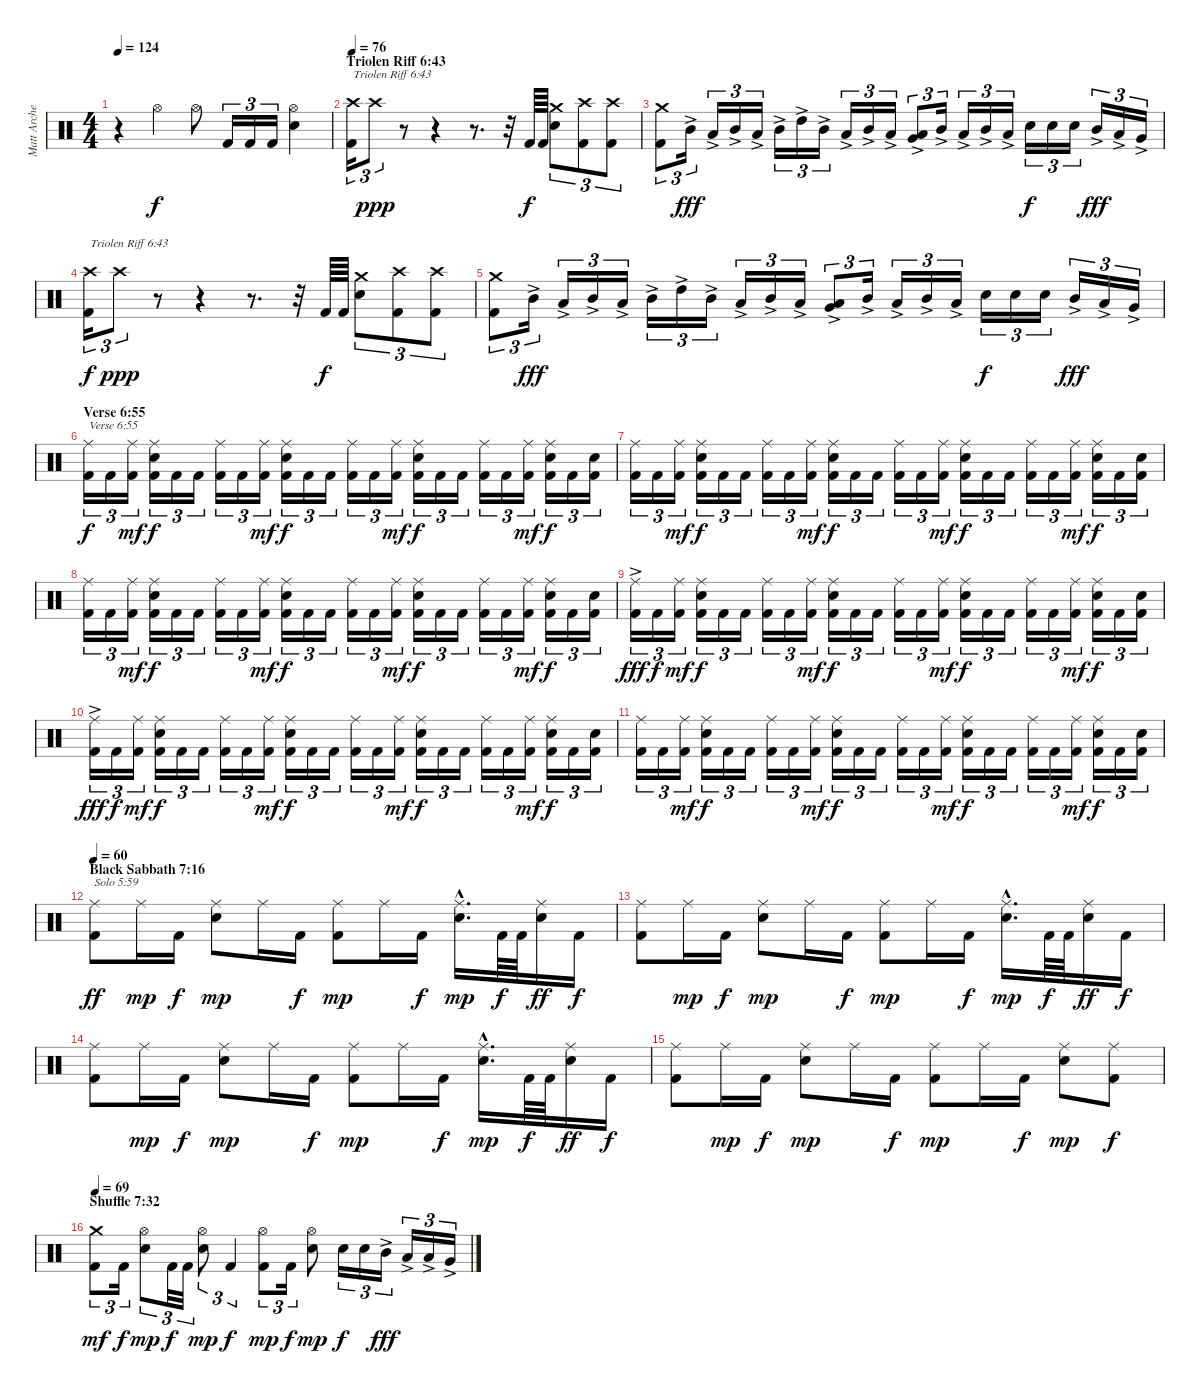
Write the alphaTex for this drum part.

\track ("Matt Archer" "Matt Arche") {instrument percussion}
\staff {score}
\articulation defaults
\ts (4 4)
\tempo 124
\clef neutral
\ks c
r.4{dy f} "Hi-Hat (open)".4 "Hi-Hat (open)".8 "Kick (hit) 2".16{tu (3 2)} "Kick (hit) 2".16{tu (3 2)} "Kick (hit) 2".16{tu (3 2)} ("Electric Snare (hit)" "Hi-Hat (open)").4 |
\section ("" "Triolen Riff 6:43")
\tempo 76
("Kick (hit) 2" "Crash high (hit)").16{tu (3 2) txt "Triolen Riff 6:43"} "Crash high (hit)".8{tu (3 2) dy ppp} r.8 r.4 r.8{d} r.32 "Kick (hit) 2".64{dy f} "Kick (hit) 2".64 ("Electric Snare (hit)" "Crash medium (hit)").8{tu (3 2)} ("Kick (hit) 2" "Crash high (hit)").8{tu (3 2)} ("Kick (hit) 2" "Crash high (hit)").8{tu (3 2)} |
("Kick (hit) 2" "Crash medium (hit)").8{tu (3 2)} "Mid Tom (hit)"{ac}.16{tu (3 2) dy fff} "Low Tom (hit)"{ac}.16{tu (3 2)} "Mid Tom (hit)"{ac}.16{tu (3 2)} "Low Tom (hit)"{ac}.16{tu (3 2)} "Mid Tom (hit)"{ac}.16{tu (3 2)} "High Tom (hit)"{ac}.16{tu (3 2)} "Mid Tom (hit)"{ac}.16{tu (3 2)} "Low Tom (hit)"{ac}.16{tu (3 2)} "Mid Tom (hit)"{ac}.16{tu (3 2)} "Low Tom (hit)"{ac}.16{tu (3 2)} ("Low Tom (hit)"{ac} "Very Low Tom (hit)"{ac}).8{tu (3 2)} "Mid Tom (hit)"{ac}.16{tu (3 2)} "Low Tom (hit)"{ac}.16{tu (3 2)} "Mid Tom (hit)"{ac}.16{tu (3 2)} "Low Tom (hit)"{ac}.16{tu (3 2)} "Electric Snare (hit)".16{tu (3 2) dy f} "Electric Snare (hit)".16{tu (3 2)} "Electric Snare (hit)".16{tu (3 2)} "Mid Tom (hit)"{ac}.16{tu (3 2) dy fff} "Low Tom (hit)"{ac}.16{tu (3 2)} "Very Low Tom (hit)"{ac}.16{tu (3 2)} |
("Kick (hit) 2" "Crash high (hit)").16{tu (3 2) txt "Triolen Riff 6:43" dy f} "Crash high (hit)".8{tu (3 2) dy ppp} r.8 r.4 r.8{d} r.32 "Kick (hit) 2".64{dy f} "Kick (hit) 2".64 ("Electric Snare (hit)" "Crash medium (hit)").8{tu (3 2)} ("Kick (hit) 2" "Crash high (hit)").8{tu (3 2)} ("Kick (hit) 2" "Crash high (hit)").8{tu (3 2)} |
("Kick (hit) 2" "Crash medium (hit)").8{tu (3 2)} "Mid Tom (hit)"{ac}.16{tu (3 2) dy fff} "Low Tom (hit)"{ac}.16{tu (3 2)} "Mid Tom (hit)"{ac}.16{tu (3 2)} "Low Tom (hit)"{ac}.16{tu (3 2)} "Mid Tom (hit)"{ac}.16{tu (3 2)} "High Tom (hit)"{ac}.16{tu (3 2)} "Mid Tom (hit)"{ac}.16{tu (3 2)} "Low Tom (hit)"{ac}.16{tu (3 2)} "Mid Tom (hit)"{ac}.16{tu (3 2)} "Low Tom (hit)"{ac}.16{tu (3 2)} ("Low Tom (hit)"{ac} "Very Low Tom (hit)"{ac}).8{tu (3 2)} "Mid Tom (hit)"{ac}.16{tu (3 2)} "Low Tom (hit)"{ac}.16{tu (3 2)} "Mid Tom (hit)"{ac}.16{tu (3 2)} "Low Tom (hit)"{ac}.16{tu (3 2)} "Electric Snare (hit)".16{tu (3 2) dy f} "Electric Snare (hit)".16{tu (3 2)} "Electric Snare (hit)".16{tu (3 2)} "Mid Tom (hit)"{ac}.16{tu (3 2) dy fff} "Low Tom (hit)"{ac}.16{tu (3 2)} "Very Low Tom (hit)"{ac}.16{tu (3 2)} |
\section ("" "Verse 6:55")
("Kick (hit) 2" "Ride (middle)").16{tu (3 2) txt "Verse 6:55" dy f} "Kick (hit) 2".16{tu (3 2)} ("Kick (hit) 2" "Ride (middle)").16{tu (3 2) dy mf} ("Kick (hit) 2" "Electric Snare (hit)" "Ride (middle)").16{tu (3 2) dy f} "Kick (hit) 2".16{tu (3 2)} "Kick (hit) 2".16{tu (3 2)} ("Kick (hit) 2" "Ride (middle)").16{tu (3 2)} "Kick (hit) 2".16{tu (3 2)} ("Kick (hit) 2" "Ride (middle)").16{tu (3 2) dy mf} ("Kick (hit) 2" "Electric Snare (hit)" "Ride (middle)").16{tu (3 2) dy f} "Kick (hit) 2".16{tu (3 2)} "Kick (hit) 2".16{tu (3 2)} ("Kick (hit) 2" "Ride (middle)").16{tu (3 2)} "Kick (hit) 2".16{tu (3 2)} ("Kick (hit) 2" "Ride (middle)").16{tu (3 2) dy mf} ("Kick (hit) 2" "Electric Snare (hit)" "Ride (middle)").16{tu (3 2) dy f} "Kick (hit) 2".16{tu (3 2)} "Kick (hit) 2".16{tu (3 2)} ("Kick (hit) 2" "Ride (middle)").16{tu (3 2)} "Kick (hit) 2".16{tu (3 2)} ("Kick (hit) 2" "Ride (middle)").16{tu (3 2) dy mf} ("Kick (hit) 2" "Electric Snare (hit)" "Ride (middle)").16{tu (3 2) dy f} "Kick (hit) 2".16{tu (3 2)} ("Kick (hit) 2" "Electric Snare (hit)").16{tu (3 2)} |
("Kick (hit) 2" "Ride (middle)").16{tu (3 2)} "Kick (hit) 2".16{tu (3 2)} ("Kick (hit) 2" "Ride (middle)").16{tu (3 2) dy mf} ("Kick (hit) 2" "Electric Snare (hit)" "Ride (middle)").16{tu (3 2) dy f} "Kick (hit) 2".16{tu (3 2)} "Kick (hit) 2".16{tu (3 2)} ("Kick (hit) 2" "Ride (middle)").16{tu (3 2)} "Kick (hit) 2".16{tu (3 2)} ("Kick (hit) 2" "Ride (middle)").16{tu (3 2) dy mf} ("Kick (hit) 2" "Electric Snare (hit)" "Ride (middle)").16{tu (3 2) dy f} "Kick (hit) 2".16{tu (3 2)} "Kick (hit) 2".16{tu (3 2)} ("Kick (hit) 2" "Ride (middle)").16{tu (3 2)} "Kick (hit) 2".16{tu (3 2)} ("Kick (hit) 2" "Ride (middle)").16{tu (3 2) dy mf} ("Kick (hit) 2" "Electric Snare (hit)" "Ride (middle)").16{tu (3 2) dy f} "Kick (hit) 2".16{tu (3 2)} "Kick (hit) 2".16{tu (3 2)} ("Kick (hit) 2" "Ride (middle)").16{tu (3 2)} "Kick (hit) 2".16{tu (3 2)} ("Kick (hit) 2" "Ride (middle)").16{tu (3 2) dy mf} ("Kick (hit) 2" "Electric Snare (hit)" "Ride (middle)").16{tu (3 2) dy f} "Kick (hit) 2".16{tu (3 2)} ("Kick (hit) 2" "Electric Snare (hit)").16{tu (3 2)} |
("Kick (hit) 2" "Ride (middle)").16{tu (3 2)} "Kick (hit) 2".16{tu (3 2)} ("Kick (hit) 2" "Ride (middle)").16{tu (3 2) dy mf} ("Kick (hit) 2" "Electric Snare (hit)" "Ride (middle)").16{tu (3 2) dy f} "Kick (hit) 2".16{tu (3 2)} "Kick (hit) 2".16{tu (3 2)} ("Kick (hit) 2" "Ride (middle)").16{tu (3 2)} "Kick (hit) 2".16{tu (3 2)} ("Kick (hit) 2" "Ride (middle)").16{tu (3 2) dy mf} ("Kick (hit) 2" "Electric Snare (hit)" "Ride (middle)").16{tu (3 2) dy f} "Kick (hit) 2".16{tu (3 2)} "Kick (hit) 2".16{tu (3 2)} ("Kick (hit) 2" "Ride (middle)").16{tu (3 2)} "Kick (hit) 2".16{tu (3 2)} ("Kick (hit) 2" "Ride (middle)").16{tu (3 2) dy mf} ("Kick (hit) 2" "Electric Snare (hit)" "Ride (middle)").16{tu (3 2) dy f} "Kick (hit) 2".16{tu (3 2)} "Kick (hit) 2".16{tu (3 2)} ("Kick (hit) 2" "Ride (middle)").16{tu (3 2)} "Kick (hit) 2".16{tu (3 2)} ("Kick (hit) 2" "Ride (middle)").16{tu (3 2) dy mf} ("Kick (hit) 2" "Electric Snare (hit)" "Ride (middle)").16{tu (3 2) dy f} "Kick (hit) 2".16{tu (3 2)} ("Kick (hit) 2" "Electric Snare (hit)").16{tu (3 2)} |
("Kick (hit) 2" "Ride (middle)"{ac}).16{tu (3 2) dy fff} "Kick (hit) 2".16{tu (3 2) dy f} ("Kick (hit) 2" "Ride (middle)").16{tu (3 2) dy mf} ("Kick (hit) 2" "Electric Snare (hit)" "Ride (middle)").16{tu (3 2) dy f} "Kick (hit) 2".16{tu (3 2)} "Kick (hit) 2".16{tu (3 2)} ("Kick (hit) 2" "Ride (middle)").16{tu (3 2)} "Kick (hit) 2".16{tu (3 2)} ("Kick (hit) 2" "Ride (middle)").16{tu (3 2) dy mf} ("Kick (hit) 2" "Electric Snare (hit)" "Ride (middle)").16{tu (3 2) dy f} "Kick (hit) 2".16{tu (3 2)} "Kick (hit) 2".16{tu (3 2)} ("Kick (hit) 2" "Ride (middle)").16{tu (3 2)} "Kick (hit) 2".16{tu (3 2)} ("Kick (hit) 2" "Ride (middle)").16{tu (3 2) dy mf} ("Kick (hit) 2" "Electric Snare (hit)" "Ride (middle)").16{tu (3 2) dy f} "Kick (hit) 2".16{tu (3 2)} "Kick (hit) 2".16{tu (3 2)} ("Kick (hit) 2" "Ride (middle)").16{tu (3 2)} "Kick (hit) 2".16{tu (3 2)} ("Kick (hit) 2" "Ride (middle)").16{tu (3 2) dy mf} ("Kick (hit) 2" "Electric Snare (hit)" "Ride (middle)").16{tu (3 2) dy f} "Kick (hit) 2".16{tu (3 2)} ("Kick (hit) 2" "Electric Snare (hit)").16{tu (3 2)} |
("Kick (hit) 2" "Ride (middle)"{ac}).16{tu (3 2) dy fff} "Kick (hit) 2".16{tu (3 2) dy f} ("Kick (hit) 2" "Ride (middle)").16{tu (3 2) dy mf} ("Kick (hit) 2" "Electric Snare (hit)" "Ride (middle)").16{tu (3 2) dy f} "Kick (hit) 2".16{tu (3 2)} "Kick (hit) 2".16{tu (3 2)} ("Kick (hit) 2" "Ride (middle)").16{tu (3 2)} "Kick (hit) 2".16{tu (3 2)} ("Kick (hit) 2" "Ride (middle)").16{tu (3 2) dy mf} ("Kick (hit) 2" "Electric Snare (hit)" "Ride (middle)").16{tu (3 2) dy f} "Kick (hit) 2".16{tu (3 2)} "Kick (hit) 2".16{tu (3 2)} ("Kick (hit) 2" "Ride (middle)").16{tu (3 2)} "Kick (hit) 2".16{tu (3 2)} ("Kick (hit) 2" "Ride (middle)").16{tu (3 2) dy mf} ("Kick (hit) 2" "Electric Snare (hit)" "Ride (middle)").16{tu (3 2) dy f} "Kick (hit) 2".16{tu (3 2)} "Kick (hit) 2".16{tu (3 2)} ("Kick (hit) 2" "Ride (middle)").16{tu (3 2)} "Kick (hit) 2".16{tu (3 2)} ("Kick (hit) 2" "Ride (middle)").16{tu (3 2) dy mf} ("Kick (hit) 2" "Electric Snare (hit)" "Ride (middle)").16{tu (3 2) dy f} "Kick (hit) 2".16{tu (3 2)} ("Kick (hit) 2" "Electric Snare (hit)").16{tu (3 2)} |
("Kick (hit) 2" "Ride (middle)").16{tu (3 2)} "Kick (hit) 2".16{tu (3 2)} ("Kick (hit) 2" "Ride (middle)").16{tu (3 2) dy mf} ("Kick (hit) 2" "Electric Snare (hit)" "Ride (middle)").16{tu (3 2) dy f} "Kick (hit) 2".16{tu (3 2)} "Kick (hit) 2".16{tu (3 2)} ("Kick (hit) 2" "Ride (middle)").16{tu (3 2)} "Kick (hit) 2".16{tu (3 2)} ("Kick (hit) 2" "Ride (middle)").16{tu (3 2) dy mf} ("Kick (hit) 2" "Electric Snare (hit)" "Ride (middle)").16{tu (3 2) dy f} "Kick (hit) 2".16{tu (3 2)} "Kick (hit) 2".16{tu (3 2)} ("Kick (hit) 2" "Ride (middle)").16{tu (3 2)} "Kick (hit) 2".16{tu (3 2)} ("Kick (hit) 2" "Ride (middle)").16{tu (3 2) dy mf} ("Kick (hit) 2" "Electric Snare (hit)" "Ride (middle)").16{tu (3 2) dy f} "Kick (hit) 2".16{tu (3 2)} "Kick (hit) 2".16{tu (3 2)} ("Kick (hit) 2" "Ride (middle)").16{tu (3 2)} "Kick (hit) 2".16{tu (3 2)} ("Kick (hit) 2" "Ride (middle)").16{tu (3 2) dy mf} ("Kick (hit) 2" "Electric Snare (hit)" "Ride (middle)").16{tu (3 2) dy f} "Kick (hit) 2".16{tu (3 2)} ("Kick (hit) 2" "Electric Snare (hit)").16{tu (3 2)} |
\section ("" "Black Sabbath 7:16")
\tempo 60
("Kick (hit) 2" "Ride (middle)").8{txt "Solo 5:59" dy ff} "Ride (middle)".16{dy mp} "Kick (hit) 2".16{dy f} ("Electric Snare (hit)" "Ride (middle)").8{dy mp} "Ride (middle)".16 "Kick (hit) 2".16{dy f} ("Kick (hit) 2" "Ride (middle)").8{dy mp} "Ride (middle)".16 "Kick (hit) 2".16{dy f} ("Electric Snare (hit)"{hac} "Ride (middle)"{hac}).16{d dy mp} "Kick (hit) 2".64{dy f} "Kick (hit) 2".64 ("Electric Snare (hit)" "Ride (middle)").16{dy ff} "Kick (hit) 2".16{dy f} |
("Kick (hit) 2" "Ride (middle)").8 "Ride (middle)".16{dy mp} "Kick (hit) 2".16{dy f} ("Electric Snare (hit)" "Ride (middle)").8{dy mp} "Ride (middle)".16 "Kick (hit) 2".16{dy f} ("Kick (hit) 2" "Ride (middle)").8{dy mp} "Ride (middle)".16 "Kick (hit) 2".16{dy f} ("Electric Snare (hit)"{hac} "Ride (middle)"{hac}).16{d dy mp} "Kick (hit) 2".64{dy f} "Kick (hit) 2".64 ("Electric Snare (hit)" "Ride (middle)").16{dy ff} "Kick (hit) 2".16{dy f} |
("Kick (hit) 2" "Ride (middle)").8 "Ride (middle)".16{dy mp} "Kick (hit) 2".16{dy f} ("Electric Snare (hit)" "Ride (middle)").8{dy mp} "Ride (middle)".16 "Kick (hit) 2".16{dy f} ("Kick (hit) 2" "Ride (middle)").8{dy mp} "Ride (middle)".16 "Kick (hit) 2".16{dy f} ("Electric Snare (hit)"{hac} "Ride (middle)"{hac}).16{d dy mp} "Kick (hit) 2".64{dy f} "Kick (hit) 2".64 ("Electric Snare (hit)" "Ride (middle)").16{dy ff} "Kick (hit) 2".16{dy f} |
("Kick (hit) 2" "Ride (middle)").8 "Ride (middle)".16{dy mp} "Kick (hit) 2".16{dy f} ("Electric Snare (hit)" "Ride (middle)").8{dy mp} "Ride (middle)".16 "Kick (hit) 2".16{dy f} ("Kick (hit) 2" "Ride (middle)").8{dy mp} "Ride (middle)".16 "Kick (hit) 2".16{dy f} ("Electric Snare (hit)" "Ride (middle)").8{dy mp} ("Kick (hit) 2" "Ride (middle)").8{dy f} |
\section ("" "Shuffle 7:32")
\tempo 69
("Kick (hit) 2" "Crash medium (hit)").8{tu (3 2) dy mf} "Kick (hit) 2".16{tu (3 2) dy f} ("Electric Snare (hit)" "Hi-Hat (open)").8{tu (3 2) dy mp} "Kick (hit) 2".32{tu (3 2) dy f} "Kick (hit) 2".32{tu (3 2)} ("Electric Snare (hit)" "Hi-Hat (open)").8{tu (3 2) dy mp} "Kick (hit) 2".4{tu (3 2) dy f} ("Kick (hit) 2" "Hi-Hat (open)").8{tu (3 2) dy mp} "Kick (hit) 2".16{tu (3 2) dy f} ("Electric Snare (hit)" "Hi-Hat (open)").8{dy mp} "Electric Snare (hit)".16{tu (3 2) dy f} "Electric Snare (hit)".16{tu (3 2)} "Mid Tom (hit)"{ac}.16{tu (3 2) dy fff} "Low Tom (hit)"{ac}.16{tu (3 2)} "Low Tom (hit)"{ac}.16{tu (3 2)} "Very Low Tom (hit)"{ac}.16{tu (3 2)}
